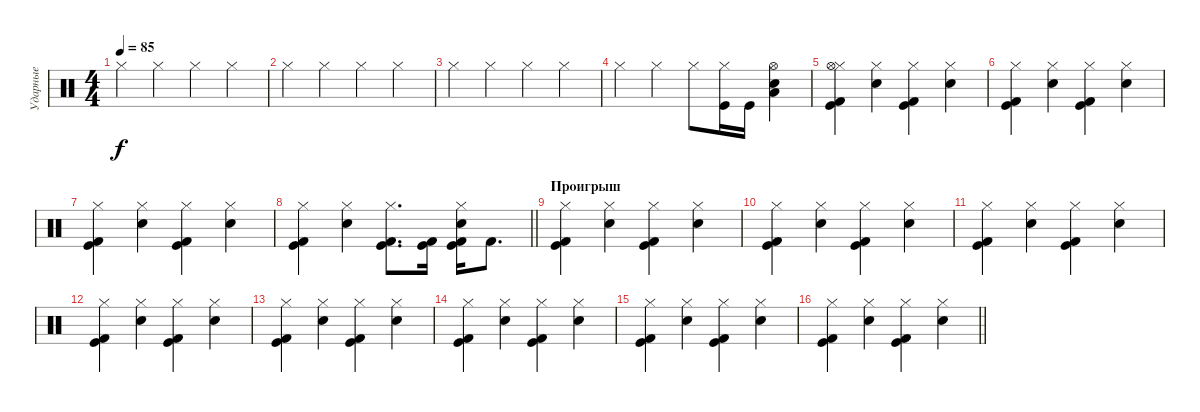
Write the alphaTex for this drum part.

\track ("Ударные" "Ударные") {instrument percussion}
\staff {score}
\articulation defaults
\ts (4 4)
\tempo 85
\clef neutral
\ks c "Hi-Hat (closed)".4{dy f} "Hi-Hat (closed)".4 "Hi-Hat (closed)".4 "Hi-Hat (closed)".4
|
"Hi-Hat (closed)".4 "Hi-Hat (closed)".4 "Hi-Hat (closed)".4 "Hi-Hat (closed)".4 |
"Hi-Hat (closed)".4 "Hi-Hat (closed)".4 "Hi-Hat (closed)".4 "Hi-Hat (closed)".4 |
"Hi-Hat (closed)".4 "Hi-Hat (closed)".4 "Hi-Hat (closed)".8 ("Hi-Hat (closed)" "Kick (hit)").16 "Kick (hit)".16 ("Hi-Hat (open)" "Electric Snare (hit)" "Low Tom (hit)").4 |
("Hi-Hat (closed)" "Hi-Hat (open)" "Kick (hit)" "Kick (hit) 2").4 ("Hi-Hat (closed)" "Electric Snare (hit)").4 ("Hi-Hat (closed)" "Kick (hit)" "Kick (hit) 2").4 ("Hi-Hat (closed)" "Electric Snare (hit)").4 |
("Hi-Hat (closed)" "Kick (hit)" "Kick (hit) 2").4 ("Hi-Hat (closed)" "Electric Snare (hit)").4 ("Hi-Hat (closed)" "Kick (hit)" "Kick (hit) 2").4 ("Hi-Hat (closed)" "Electric Snare (hit)").4 |
("Hi-Hat (closed)" "Kick (hit)" "Kick (hit) 2").4 ("Hi-Hat (closed)" "Electric Snare (hit)").4 ("Hi-Hat (closed)" "Kick (hit)" "Kick (hit) 2").4 ("Hi-Hat (closed)" "Electric Snare (hit)").4 |
\barLineRight lightlight
("Hi-Hat (closed)" "Kick (hit)" "Kick (hit) 2").4 ("Hi-Hat (closed)" "Electric Snare (hit)").4 ("Hi-Hat (closed)" "Kick (hit)" "Kick (hit) 2").8{d} ("Kick (hit)" "Kick (hit) 2").16 ("Hi-Hat (closed)" "Electric Snare (hit)" "Kick (hit)" "Kick (hit) 2").16 "Kick (hit) 2".8{d} |
\section ("" "Проигрыш")
("Hi-Hat (closed)" "Kick (hit)" "Kick (hit) 2").4 ("Hi-Hat (closed)" "Electric Snare (hit)").4 ("Hi-Hat (closed)" "Kick (hit)" "Kick (hit) 2").4 ("Hi-Hat (closed)" "Electric Snare (hit)").4 |
("Hi-Hat (closed)" "Kick (hit)" "Kick (hit) 2").4 ("Hi-Hat (closed)" "Electric Snare (hit)").4 ("Hi-Hat (closed)" "Kick (hit)" "Kick (hit) 2").4 ("Hi-Hat (closed)" "Electric Snare (hit)").4 |
("Hi-Hat (closed)" "Kick (hit)" "Kick (hit) 2").4 ("Hi-Hat (closed)" "Electric Snare (hit)").4 ("Hi-Hat (closed)" "Kick (hit)" "Kick (hit) 2").4 ("Hi-Hat (closed)" "Electric Snare (hit)").4 |
("Hi-Hat (closed)" "Kick (hit)" "Kick (hit) 2").4 ("Hi-Hat (closed)" "Electric Snare (hit)").4 ("Hi-Hat (closed)" "Kick (hit)" "Kick (hit) 2").4 ("Hi-Hat (closed)" "Electric Snare (hit)").4 |
("Hi-Hat (closed)" "Kick (hit)" "Kick (hit) 2").4 ("Hi-Hat (closed)" "Electric Snare (hit)").4 ("Hi-Hat (closed)" "Kick (hit)" "Kick (hit) 2").4 ("Hi-Hat (closed)" "Electric Snare (hit)").4 |
("Hi-Hat (closed)" "Kick (hit)" "Kick (hit) 2").4 ("Hi-Hat (closed)" "Electric Snare (hit)").4 ("Hi-Hat (closed)" "Kick (hit)" "Kick (hit) 2").4 ("Hi-Hat (closed)" "Electric Snare (hit)").4 |
("Hi-Hat (closed)" "Kick (hit)" "Kick (hit) 2").4 ("Hi-Hat (closed)" "Electric Snare (hit)").4 ("Hi-Hat (closed)" "Kick (hit)" "Kick (hit) 2").4 ("Hi-Hat (closed)" "Electric Snare (hit)").4 |
\barLineRight lightlight
("Hi-Hat (closed)" "Kick (hit)" "Kick (hit) 2").4 ("Hi-Hat (closed)" "Electric Snare (hit)").4 ("Hi-Hat (closed)" "Kick (hit)" "Kick (hit) 2").4 ("Hi-Hat (closed)" "Electric Snare (hit)").4
